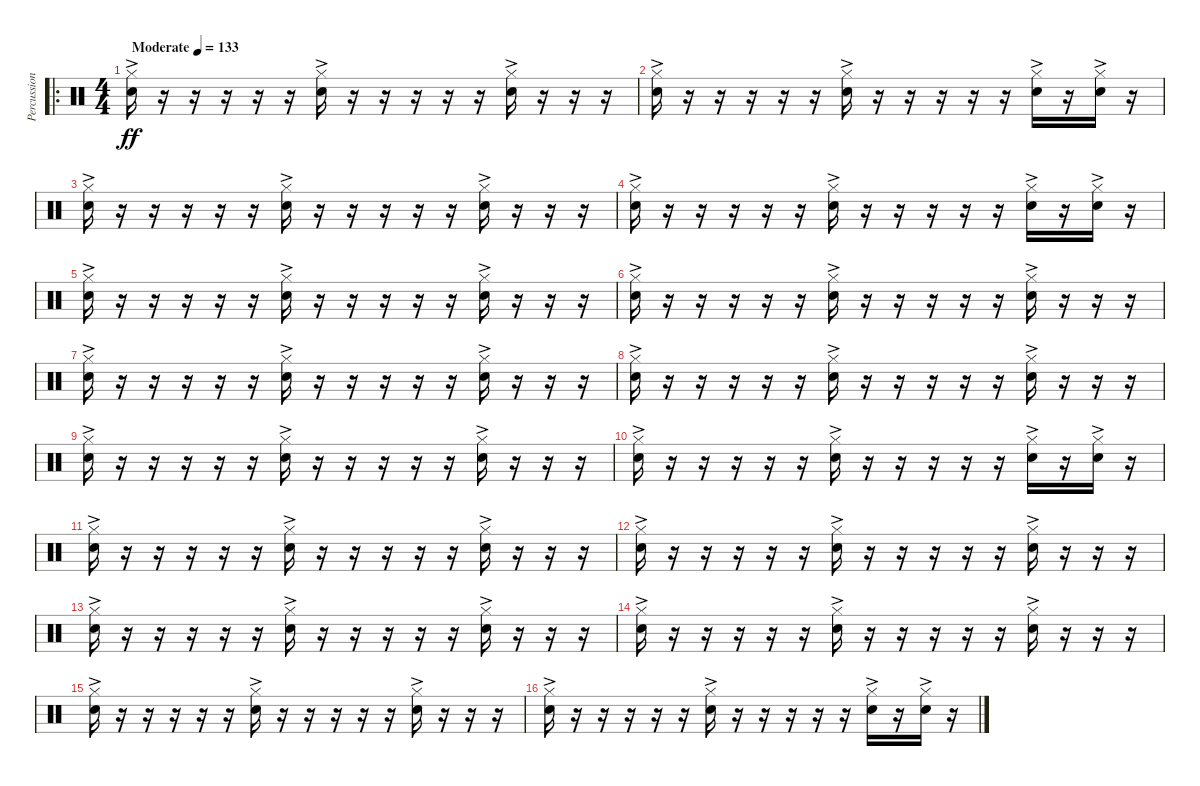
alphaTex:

\track ("Percussion" "Percussion") {instrument percussion bank 2}
\staff {score}
\articulation defaults
\ro
\ts (4 4)
\tempo (133 "Moderate")
\clef neutral
\ks c
("Hi-Hat (closed)"{ac} "Snare (hit) 2"{ac}).16{dy ff} r.16 r.16 r.16 r.16 r.16 ("Hi-Hat (closed)"{ac} "Snare (hit) 2"{ac}).16 r.16 r.16 r.16 r.16 r.16 ("Hi-Hat (closed)"{ac} "Snare (hit) 2"{ac}).16 r.16 r.16 r.16 |
("Hi-Hat (closed)"{ac} "Snare (hit) 2"{ac}).16 r.16 r.16 r.16 r.16 r.16 ("Hi-Hat (closed)"{ac} "Snare (hit) 2"{ac}).16 r.16 r.16 r.16 r.16 r.16 ("Hi-Hat (closed)"{ac} "Snare (hit) 2"{ac}).16 r.16 ("Hi-Hat (closed)"{ac} "Snare (hit) 2"{ac}).16 r.16 |
("Hi-Hat (closed)"{ac} "Snare (hit) 2"{ac}).16 r.16 r.16 r.16 r.16 r.16 ("Hi-Hat (closed)"{ac} "Snare (hit) 2"{ac}).16 r.16 r.16 r.16 r.16 r.16 ("Hi-Hat (closed)"{ac} "Snare (hit) 2"{ac}).16 r.16 r.16 r.16 |
("Hi-Hat (closed)"{ac} "Snare (hit) 2"{ac}).16 r.16 r.16 r.16 r.16 r.16 ("Hi-Hat (closed)"{ac} "Snare (hit) 2"{ac}).16 r.16 r.16 r.16 r.16 r.16 ("Hi-Hat (closed)"{ac} "Snare (hit) 2"{ac}).16 r.16 ("Hi-Hat (closed)"{ac} "Snare (hit) 2"{ac}).16 r.16 |
("Hi-Hat (closed)"{ac} "Snare (hit) 2"{ac}).16 r.16 r.16 r.16 r.16 r.16 ("Hi-Hat (closed)"{ac} "Snare (hit) 2"{ac}).16 r.16 r.16 r.16 r.16 r.16 ("Hi-Hat (closed)"{ac} "Snare (hit) 2"{ac}).16 r.16 r.16 r.16 |
("Hi-Hat (closed)"{ac} "Snare (hit) 2"{ac}).16 r.16 r.16 r.16 r.16 r.16 ("Hi-Hat (closed)"{ac} "Snare (hit) 2"{ac}).16 r.16 r.16 r.16 r.16 r.16 ("Hi-Hat (closed)"{ac} "Snare (hit) 2"{ac}).16 r.16 r.16 r.16 |
("Hi-Hat (closed)"{ac} "Snare (hit) 2"{ac}).16 r.16 r.16 r.16 r.16 r.16 ("Hi-Hat (closed)"{ac} "Snare (hit) 2"{ac}).16 r.16 r.16 r.16 r.16 r.16 ("Hi-Hat (closed)"{ac} "Snare (hit) 2"{ac}).16 r.16 r.16 r.16 |
("Hi-Hat (closed)"{ac} "Snare (hit) 2"{ac}).16 r.16 r.16 r.16 r.16 r.16 ("Hi-Hat (closed)"{ac} "Snare (hit) 2"{ac}).16 r.16 r.16 r.16 r.16 r.16 ("Hi-Hat (closed)"{ac} "Snare (hit) 2"{ac}).16 r.16 r.16 r.16 |
("Hi-Hat (closed)"{ac} "Snare (hit) 2"{ac}).16 r.16 r.16 r.16 r.16 r.16 ("Hi-Hat (closed)"{ac} "Snare (hit) 2"{ac}).16 r.16 r.16 r.16 r.16 r.16 ("Hi-Hat (closed)"{ac} "Snare (hit) 2"{ac}).16 r.16 r.16 r.16 |
("Hi-Hat (closed)"{ac} "Snare (hit) 2"{ac}).16 r.16 r.16 r.16 r.16 r.16 ("Hi-Hat (closed)"{ac} "Snare (hit) 2"{ac}).16 r.16 r.16 r.16 r.16 r.16 ("Hi-Hat (closed)"{ac} "Snare (hit) 2"{ac}).16 r.16 ("Hi-Hat (closed)"{ac} "Snare (hit) 2"{ac}).16 r.16 |
("Hi-Hat (closed)"{ac} "Snare (hit) 2"{ac}).16 r.16 r.16 r.16 r.16 r.16 ("Hi-Hat (closed)"{ac} "Snare (hit) 2"{ac}).16 r.16 r.16 r.16 r.16 r.16 ("Hi-Hat (closed)"{ac} "Snare (hit) 2"{ac}).16 r.16 r.16 r.16 |
("Hi-Hat (closed)"{ac} "Snare (hit) 2"{ac}).16 r.16 r.16 r.16 r.16 r.16 ("Hi-Hat (closed)"{ac} "Snare (hit) 2"{ac}).16 r.16 r.16 r.16 r.16 r.16 ("Hi-Hat (closed)"{ac} "Snare (hit) 2"{ac}).16 r.16 r.16 r.16 |
("Hi-Hat (closed)"{ac} "Snare (hit) 2"{ac}).16 r.16 r.16 r.16 r.16 r.16 ("Hi-Hat (closed)"{ac} "Snare (hit) 2"{ac}).16 r.16 r.16 r.16 r.16 r.16 ("Hi-Hat (closed)"{ac} "Snare (hit) 2"{ac}).16 r.16 r.16 r.16 |
("Hi-Hat (closed)"{ac} "Snare (hit) 2"{ac}).16 r.16 r.16 r.16 r.16 r.16 ("Hi-Hat (closed)"{ac} "Snare (hit) 2"{ac}).16 r.16 r.16 r.16 r.16 r.16 ("Hi-Hat (closed)"{ac} "Snare (hit) 2"{ac}).16 r.16 r.16 r.16 |
("Hi-Hat (closed)"{ac} "Snare (hit) 2"{ac}).16 r.16 r.16 r.16 r.16 r.16 ("Hi-Hat (closed)"{ac} "Snare (hit) 2"{ac}).16 r.16 r.16 r.16 r.16 r.16 ("Hi-Hat (closed)"{ac} "Snare (hit) 2"{ac}).16 r.16 r.16 r.16 |
("Hi-Hat (closed)"{ac} "Snare (hit) 2"{ac}).16 r.16 r.16 r.16 r.16 r.16 ("Hi-Hat (closed)"{ac} "Snare (hit) 2"{ac}).16 r.16 r.16 r.16 r.16 r.16 ("Hi-Hat (closed)"{ac} "Snare (hit) 2"{ac}).16 r.16 ("Hi-Hat (closed)"{ac} "Snare (hit) 2"{ac}).16 r.16
